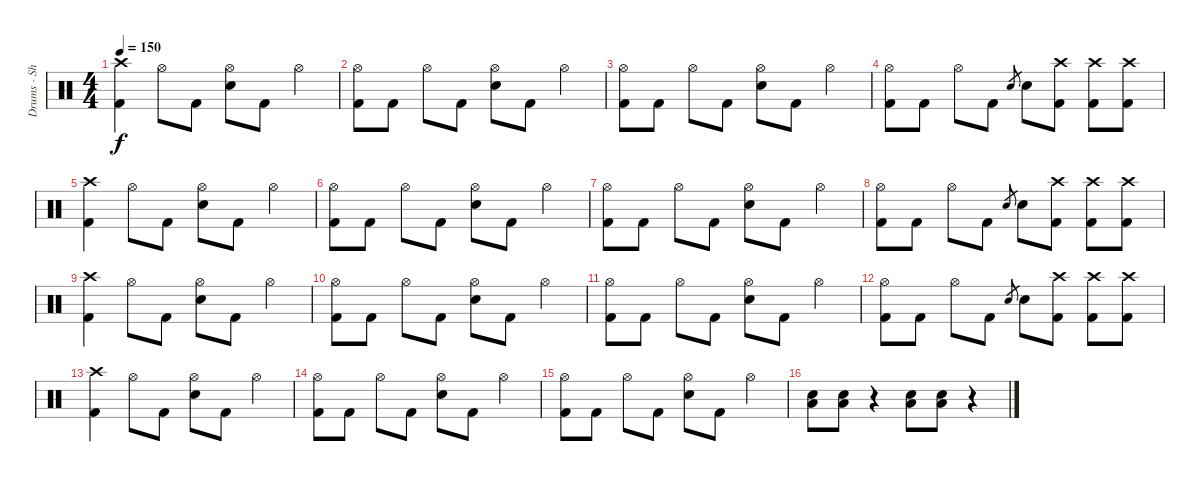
\track ("Drums - Shelton" "Drums - Sh") {instrument percussion}
\staff {score}
\articulation defaults
\ts (4 4)
\tempo 150
\clef neutral
\ks c
("Crash high (hit)" "Kick (hit) 2").4{dy f} "Hi-Hat (open)".8 "Kick (hit) 2".8 ("Hi-Hat (open)" "Electric Snare (hit)").8 "Kick (hit) 2".8 "Hi-Hat (open)".4 |
("Hi-Hat (open)" "Kick (hit) 2").8 "Kick (hit) 2".8 "Hi-Hat (open)".8 "Kick (hit) 2".8 ("Hi-Hat (open)" "Electric Snare (hit)").8 "Kick (hit) 2".8 "Hi-Hat (open)".4 |
("Hi-Hat (open)" "Kick (hit) 2").8 "Kick (hit) 2".8 "Hi-Hat (open)".8 "Kick (hit) 2".8 ("Hi-Hat (open)" "Electric Snare (hit)").8 "Kick (hit) 2".8 "Hi-Hat (open)".4 |
("Hi-Hat (open)" "Kick (hit) 2").8 "Kick (hit) 2".8 "Hi-Hat (open)".8 "Kick (hit) 2".8 "Electric Snare (hit)".8{gr} "Electric Snare (hit)".8 ("Crash high (hit)" "Kick (hit) 2").8 ("Crash high (hit)" "Kick (hit) 2").8 ("Crash high (hit)" "Kick (hit) 2").8 |
("Crash high (hit)" "Kick (hit) 2").4 "Hi-Hat (open)".8 "Kick (hit) 2".8 ("Hi-Hat (open)" "Electric Snare (hit)").8 "Kick (hit) 2".8 "Hi-Hat (open)".4 |
("Hi-Hat (open)" "Kick (hit) 2").8 "Kick (hit) 2".8 "Hi-Hat (open)".8 "Kick (hit) 2".8 ("Hi-Hat (open)" "Electric Snare (hit)").8 "Kick (hit) 2".8 "Hi-Hat (open)".4 |
("Hi-Hat (open)" "Kick (hit) 2").8 "Kick (hit) 2".8 "Hi-Hat (open)".8 "Kick (hit) 2".8 ("Hi-Hat (open)" "Electric Snare (hit)").8 "Kick (hit) 2".8 "Hi-Hat (open)".4 |
("Hi-Hat (open)" "Kick (hit) 2").8 "Kick (hit) 2".8 "Hi-Hat (open)".8 "Kick (hit) 2".8 "Electric Snare (hit)".8{gr} "Electric Snare (hit)".8 ("Crash high (hit)" "Kick (hit) 2").8 ("Crash high (hit)" "Kick (hit) 2").8 ("Crash high (hit)" "Kick (hit) 2").8 |
("Crash high (hit)" "Kick (hit) 2").4 "Hi-Hat (open)".8 "Kick (hit) 2".8 ("Hi-Hat (open)" "Electric Snare (hit)").8 "Kick (hit) 2".8 "Hi-Hat (open)".4 |
("Hi-Hat (open)" "Kick (hit) 2").8 "Kick (hit) 2".8 "Hi-Hat (open)".8 "Kick (hit) 2".8 ("Hi-Hat (open)" "Electric Snare (hit)").8 "Kick (hit) 2".8 "Hi-Hat (open)".4 |
("Hi-Hat (open)" "Kick (hit) 2").8 "Kick (hit) 2".8 "Hi-Hat (open)".8 "Kick (hit) 2".8 ("Hi-Hat (open)" "Electric Snare (hit)").8 "Kick (hit) 2".8 "Hi-Hat (open)".4 |
("Hi-Hat (open)" "Kick (hit) 2").8 "Kick (hit) 2".8 "Hi-Hat (open)".8 "Kick (hit) 2".8 "Electric Snare (hit)".8{gr} "Electric Snare (hit)".8 ("Crash high (hit)" "Kick (hit) 2").8 ("Crash high (hit)" "Kick (hit) 2").8 ("Crash high (hit)" "Kick (hit) 2").8 |
("Crash high (hit)" "Kick (hit) 2").4 "Hi-Hat (open)".8 "Kick (hit) 2".8 ("Hi-Hat (open)" "Electric Snare (hit)").8 "Kick (hit) 2".8 "Hi-Hat (open)".4 |
("Hi-Hat (open)" "Kick (hit) 2").8 "Kick (hit) 2".8 "Hi-Hat (open)".8 "Kick (hit) 2".8 ("Hi-Hat (open)" "Electric Snare (hit)").8 "Kick (hit) 2".8 "Hi-Hat (open)".4 |
("Hi-Hat (open)" "Kick (hit) 2").8 "Kick (hit) 2".8 "Hi-Hat (open)".8 "Kick (hit) 2".8 ("Hi-Hat (open)" "Electric Snare (hit)").8 "Kick (hit) 2".8 "Hi-Hat (open)".4 |
("Low Tom (hit)" "Electric Snare (hit)").8 ("Low Tom (hit)" "Electric Snare (hit)").8 r.4 ("Low Tom (hit)" "Electric Snare (hit)").8 ("Low Tom (hit)" "Electric Snare (hit)").8 r.4
